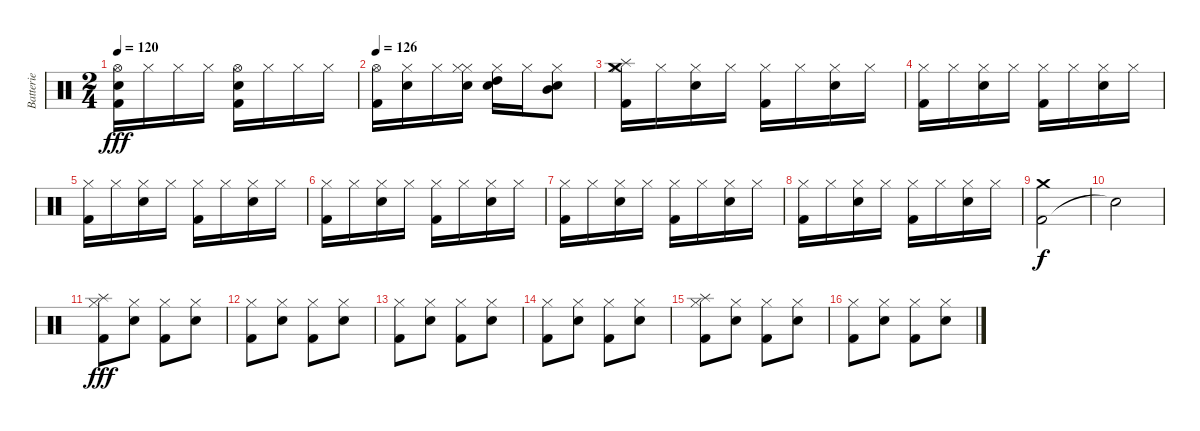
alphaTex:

\track ("Batterie" "Batterie") {instrument percussion}
\staff {score}
\articulation defaults
\ts (2 4)
\tempo 120
\clef neutral
\ks c
("Kick (hit) 2" "Electric Snare (hit)" "Hi-Hat (open)").16{dy fff} "Hi-Hat (closed)".16 "Hi-Hat (closed)".16 "Hi-Hat (closed)".16 ("Kick (hit) 2" "Electric Snare (hit)" "Hi-Hat (open)").16 "Hi-Hat (closed)".16 "Hi-Hat (closed)".16 "Hi-Hat (closed)".16 |
\tempo 126
("Kick (hit) 2" "Hi-Hat (open)").16 ("Electric Snare (hit)" "Hi-Hat (closed)").16 "Hi-Hat (closed)".16 ("Hi-Hat (closed)" "Electric Snare (hit)" "Hi-Hat (closed)").16 ("Hi-Hat (closed)" "High Tom (hit)" "Electric Snare (hit)").16 "Hi-Hat (closed)".16 ("Hi-Hat (closed)" "Electric Snare (hit)" "Mid Tom (hit)").8 |
("Kick (hit) 2" "Crash medium (hit)" "Splash (hit)" "Hi-Hat (closed)").16 "Hi-Hat (closed)".16 ("Hi-Hat (closed)" "Electric Snare (hit)").16 "Hi-Hat (closed)".16 ("Kick (hit) 2" "Hi-Hat (closed)").16 "Hi-Hat (closed)".16 ("Hi-Hat (closed)" "Electric Snare (hit)").16 "Hi-Hat (closed)".16 |
("Kick (hit) 2" "Hi-Hat (closed)").16 "Hi-Hat (closed)".16 ("Hi-Hat (closed)" "Electric Snare (hit)").16 "Hi-Hat (closed)".16 ("Kick (hit) 2" "Hi-Hat (closed)").16 "Hi-Hat (closed)".16 ("Hi-Hat (closed)" "Electric Snare (hit)").16 "Hi-Hat (closed)".16 |
("Kick (hit) 2" "Hi-Hat (closed)").16 "Hi-Hat (closed)".16 ("Hi-Hat (closed)" "Electric Snare (hit)").16 "Hi-Hat (closed)".16 ("Kick (hit) 2" "Hi-Hat (closed)").16 "Hi-Hat (closed)".16 ("Hi-Hat (closed)" "Electric Snare (hit)").16 "Hi-Hat (closed)".16 |
("Kick (hit) 2" "Hi-Hat (closed)").16 "Hi-Hat (closed)".16 ("Hi-Hat (closed)" "Electric Snare (hit)").16 "Hi-Hat (closed)".16 ("Kick (hit) 2" "Hi-Hat (closed)").16 "Hi-Hat (closed)".16 ("Hi-Hat (closed)" "Electric Snare (hit)").16 "Hi-Hat (closed)".16 |
("Kick (hit) 2" "Hi-Hat (closed)").16 "Hi-Hat (closed)".16 ("Hi-Hat (closed)" "Electric Snare (hit)").16 "Hi-Hat (closed)".16 ("Kick (hit) 2" "Hi-Hat (closed)").16 "Hi-Hat (closed)".16 ("Hi-Hat (closed)" "Electric Snare (hit)").16 "Hi-Hat (closed)".16 |
("Kick (hit) 2" "Hi-Hat (closed)").16 "Hi-Hat (closed)".16 ("Hi-Hat (closed)" "Electric Snare (hit)").16 "Hi-Hat (closed)".16 ("Kick (hit) 2" "Hi-Hat (closed)").16 "Hi-Hat (closed)".16 ("Hi-Hat (closed)" "Electric Snare (hit)").16 "Hi-Hat (closed)".16 |
("Kick (hit) 2" "Crash medium (hit)").2{dy f} |
"Snare (hit)"{t}.2 |
("Splash (hit)" "Hi-Hat (closed)" "Kick (hit) 2").8{dy fff} ("Hi-Hat (closed)" "Electric Snare (hit)").8 ("Hi-Hat (closed)" "Kick (hit) 2").8 ("Hi-Hat (closed)" "Electric Snare (hit)").8 |
("Hi-Hat (closed)" "Kick (hit) 2").8 ("Hi-Hat (closed)" "Electric Snare (hit)").8 ("Hi-Hat (closed)" "Kick (hit) 2").8 ("Hi-Hat (closed)" "Electric Snare (hit)").8 |
("Hi-Hat (closed)" "Kick (hit) 2").8 ("Hi-Hat (closed)" "Electric Snare (hit)").8 ("Hi-Hat (closed)" "Kick (hit) 2").8 ("Hi-Hat (closed)" "Electric Snare (hit)").8 |
("Hi-Hat (closed)" "Kick (hit) 2").8 ("Hi-Hat (closed)" "Electric Snare (hit)").8 ("Hi-Hat (closed)" "Kick (hit) 2").8 ("Hi-Hat (closed)" "Electric Snare (hit)").8 |
("Splash (hit)" "Hi-Hat (closed)" "Kick (hit) 2").8 ("Hi-Hat (closed)" "Electric Snare (hit)").8 ("Hi-Hat (closed)" "Kick (hit) 2").8 ("Hi-Hat (closed)" "Electric Snare (hit)").8 |
("Hi-Hat (closed)" "Kick (hit) 2").8 ("Hi-Hat (closed)" "Electric Snare (hit)").8 ("Hi-Hat (closed)" "Kick (hit) 2").8 ("Hi-Hat (closed)" "Electric Snare (hit)").8
